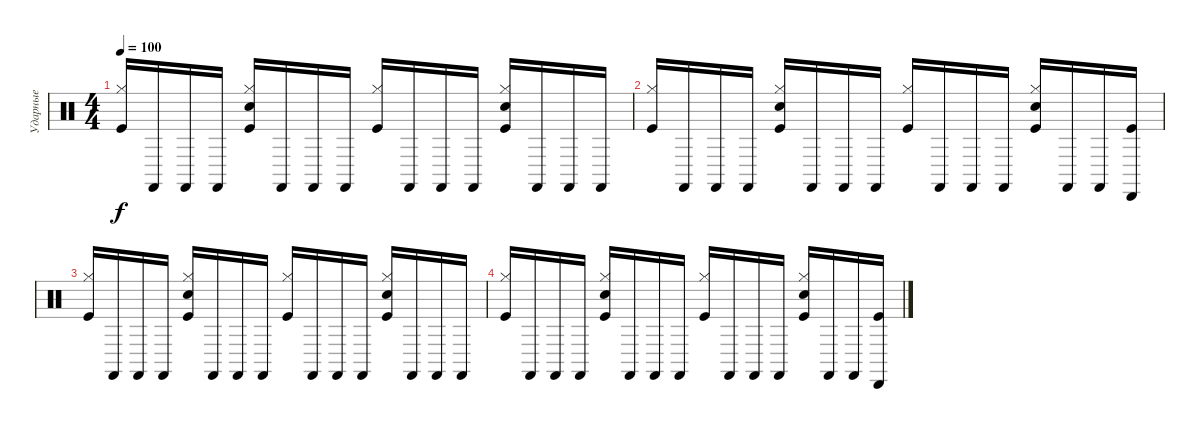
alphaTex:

\track ("Ударные" "Ударные") {instrument percussion}
\staff {score}
\articulation defaults
\ts (4 4)
\tempo 100
\clef neutral
\ks c
("Kick (hit)" "Hi-Hat (closed)").16{dy f} "Castanets (hit)".16 "Castanets (hit)".16 "Castanets (hit)".16 ("Kick (hit)" "Hi-Hat (closed)" "Snare (hit) 2").16 "Castanets (hit)".16 "Castanets (hit)".16 "Castanets (hit)".16 ("Kick (hit)" "Hi-Hat (closed)").16 "Castanets (hit)".16 "Castanets (hit)".16 "Castanets (hit)".16 ("Kick (hit)" "Hi-Hat (closed)" "Snare (hit) 2").16 "Castanets (hit)".16 "Castanets (hit)".16 "Castanets (hit)".16 |
("Kick (hit)" "Hi-Hat (closed)").16 "Castanets (hit)".16 "Castanets (hit)".16 "Castanets (hit)".16 ("Kick (hit)" "Hi-Hat (closed)" "Snare (hit) 2").16 "Castanets (hit)".16 "Castanets (hit)".16 "Castanets (hit)".16 ("Kick (hit)" "Hi-Hat (closed)").16 "Castanets (hit)".16 "Castanets (hit)".16 "Castanets (hit)".16 ("Kick (hit)" "Hi-Hat (closed)" "Snare (hit) 2").16 "Castanets (hit)".16 "Castanets (hit)".16 ("Kick (hit)" "Cabasa (hit)").16 |
("Kick (hit)" "Hi-Hat (closed)").16 "Castanets (hit)".16 "Castanets (hit)".16 "Castanets (hit)".16 ("Kick (hit)" "Hi-Hat (closed)" "Snare (hit) 2").16 "Castanets (hit)".16 "Castanets (hit)".16 "Castanets (hit)".16 ("Kick (hit)" "Hi-Hat (closed)").16 "Castanets (hit)".16 "Castanets (hit)".16 "Castanets (hit)".16 ("Kick (hit)" "Hi-Hat (closed)" "Snare (hit) 2").16 "Castanets (hit)".16 "Castanets (hit)".16 "Castanets (hit)".16 |
("Kick (hit)" "Hi-Hat (closed)").16 "Castanets (hit)".16 "Castanets (hit)".16 "Castanets (hit)".16 ("Kick (hit)" "Hi-Hat (closed)" "Snare (hit) 2").16 "Castanets (hit)".16 "Castanets (hit)".16 "Castanets (hit)".16 ("Kick (hit)" "Hi-Hat (closed)").16 "Castanets (hit)".16 "Castanets (hit)".16 "Castanets (hit)".16 ("Kick (hit)" "Hi-Hat (closed)" "Snare (hit) 2").16 "Castanets (hit)".16 "Castanets (hit)".16 ("Kick (hit)" "Cabasa (hit)").16
